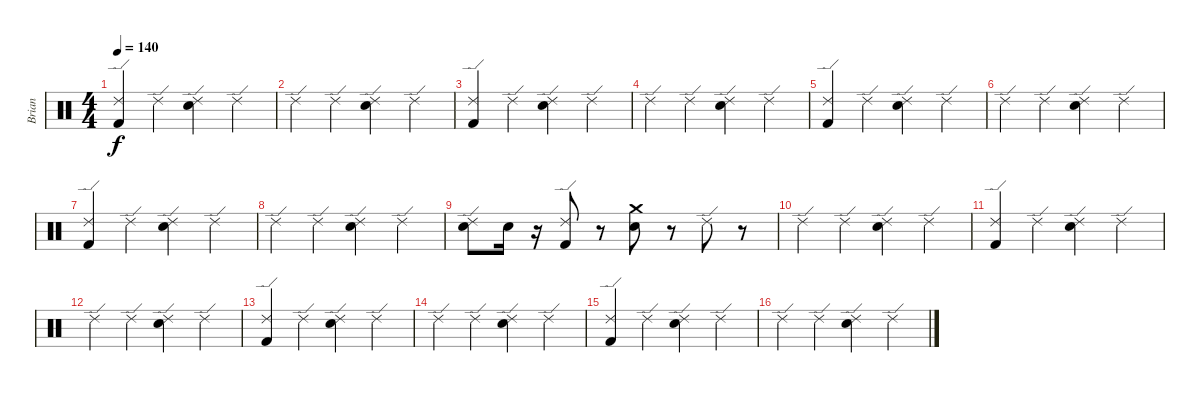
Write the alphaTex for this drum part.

\track ("Brian" "Brian") {instrument percussion}
\staff {score}
\articulation defaults
\ts (4 4)
\tempo 140
\clef neutral
\ks c
("Ride (edge) 2" "Kick (hit) 2").4{dy f} "Ride (edge) 2".4 ("Ride (edge) 2" "Electric Snare (hit)").4 "Ride (edge) 2".4 |
"Ride (edge) 2".4 "Ride (edge) 2".4 ("Ride (edge) 2" "Electric Snare (hit)").4 "Ride (edge) 2".4 |
("Ride (edge) 2" "Kick (hit) 2").4 "Ride (edge) 2".4 ("Ride (edge) 2" "Electric Snare (hit)").4 "Ride (edge) 2".4 |
"Ride (edge) 2".4 "Ride (edge) 2".4 ("Ride (edge) 2" "Electric Snare (hit)").4 "Ride (edge) 2".4 |
("Ride (edge) 2" "Kick (hit) 2").4 "Ride (edge) 2".4 ("Ride (edge) 2" "Electric Snare (hit)").4 "Ride (edge) 2".4 |
"Ride (edge) 2".4 "Ride (edge) 2".4 ("Ride (edge) 2" "Electric Snare (hit)").4 "Ride (edge) 2".4 |
("Ride (edge) 2" "Kick (hit) 2").4 "Ride (edge) 2".4 ("Ride (edge) 2" "Electric Snare (hit)").4 "Ride (edge) 2".4 |
"Ride (edge) 2".4 "Ride (edge) 2".4 ("Ride (edge) 2" "Electric Snare (hit)").4 "Ride (edge) 2".4 |
("Ride (edge) 2" "Electric Snare (hit)").8 "Electric Snare (hit)".16 r.16 ("Ride (edge) 2" "Kick (hit) 2").8 r.8 ("Crash medium (hit)" "Electric Snare (hit)").8 r.8 "Ride (edge) 2".8 r.8 |
"Ride (edge) 2".4 "Ride (edge) 2".4 ("Ride (edge) 2" "Electric Snare (hit)").4 "Ride (edge) 2".4 |
("Ride (edge) 2" "Kick (hit) 2").4 "Ride (edge) 2".4 ("Ride (edge) 2" "Electric Snare (hit)").4 "Ride (edge) 2".4 |
"Ride (edge) 2".4 "Ride (edge) 2".4 ("Ride (edge) 2" "Electric Snare (hit)").4 "Ride (edge) 2".4 |
("Ride (edge) 2" "Kick (hit) 2").4 "Ride (edge) 2".4 ("Ride (edge) 2" "Electric Snare (hit)").4 "Ride (edge) 2".4 |
"Ride (edge) 2".4 "Ride (edge) 2".4 ("Ride (edge) 2" "Electric Snare (hit)").4 "Ride (edge) 2".4 |
("Ride (edge) 2" "Kick (hit) 2").4 "Ride (edge) 2".4 ("Ride (edge) 2" "Electric Snare (hit)").4 "Ride (edge) 2".4 |
"Ride (edge) 2".4 "Ride (edge) 2".4 ("Ride (edge) 2" "Electric Snare (hit)").4 "Ride (edge) 2".4
